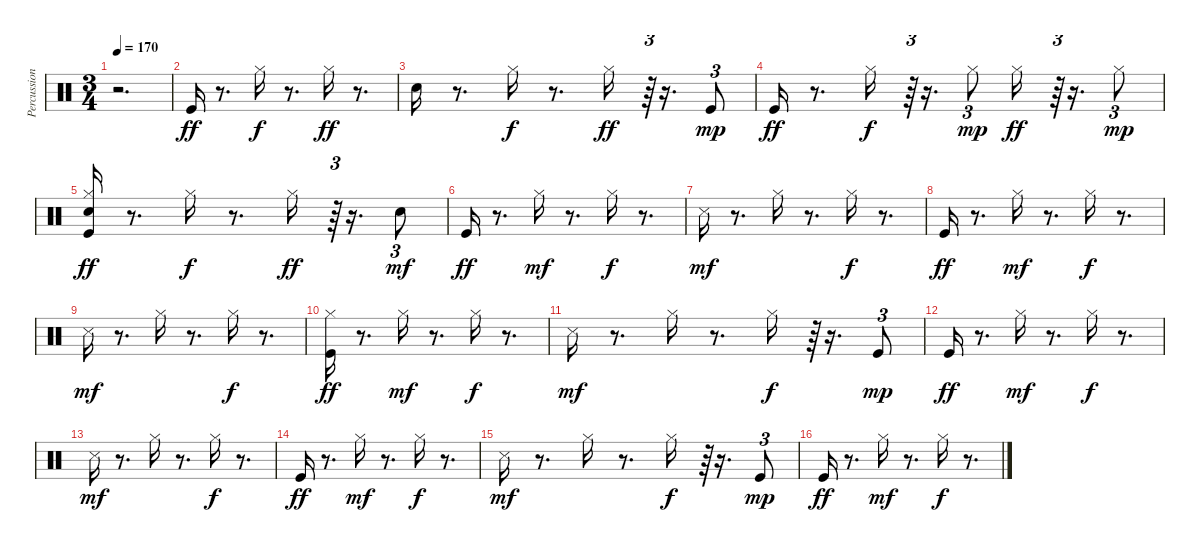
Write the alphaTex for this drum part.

\track ("Percussion" "Percussion") {instrument percussion}
\staff {score}
\articulation defaults
\ts (3 4)
\tempo 170
\clef neutral
\ks c
r.2{d dy ff} |
"Kick (hit)".16{balance 8} r.8{d} "Hi-Hat (closed)".16{dy f} r.8{d} "Hi-Hat (closed)".16{dy ff} r.8{d} |
"Snare (hit) 2".16 r.8{d} "Hi-Hat (closed)".16{dy f} r.8{d} "Hi-Hat (closed)".16{dy ff} r.64{tu (3 2)} r.16{d} "Kick (hit)".8{tu (3 2) dy mp} |
"Kick (hit)".16{dy ff} r.8{d} "Hi-Hat (closed)".16{dy f} r.64{tu (3 2)} r.16{d} "Hi-Hat (closed)".8{tu (3 2) dy mp} "Hi-Hat (closed)".16{dy ff} r.64{tu (3 2)} r.16{d} "Hi-Hat (closed)".8{tu (3 2) dy mp} |
("Kick (hit)" "Snare (hit) 2" "Hi-Hat (closed)").16{dy ff} r.8{d} "Hi-Hat (closed)".16{dy f} r.8{d} "Hi-Hat (closed)".16{dy ff} r.64{tu (3 2)} r.16{d} "Snare (hit) 2".8{tu (3 2) dy mf} |
"Kick (hit)".16{dy ff} r.8{d} "Hi-Hat (closed)".16{dy mf} r.8{d} "Hi-Hat (closed)".16{dy f} r.8{d} |
"Snare (side stick) 3".16{dy mf} r.8{d} "Hi-Hat (closed)".16 r.8{d} "Hi-Hat (closed)".16{dy f} r.8{d} |
"Kick (hit)".16{dy ff} r.8{d} "Hi-Hat (closed)".16{dy mf} r.8{d} "Hi-Hat (closed)".16{dy f} r.8{d} |
"Snare (side stick) 3".16{dy mf} r.8{d} "Hi-Hat (closed)".16 r.8{d} "Hi-Hat (closed)".16{dy f} r.8{d} |
("Kick (hit)" "Hi-Hat (closed)").16{dy ff} r.8{d} "Hi-Hat (closed)".16{dy mf} r.8{d} "Hi-Hat (closed)".16{dy f} r.8{d} |
"Snare (side stick) 3".16{dy mf} r.8{d} "Hi-Hat (closed)".16 r.8{d} "Hi-Hat (closed)".16{dy f} r.64{tu (3 2)} r.16{d} "Kick (hit)".8{tu (3 2) dy mp} |
"Kick (hit)".16{dy ff} r.8{d} "Hi-Hat (closed)".16{dy mf} r.8{d} "Hi-Hat (closed)".16{dy f} r.8{d} |
"Snare (side stick) 3".16{dy mf} r.8{d} "Hi-Hat (closed)".16 r.8{d} "Hi-Hat (closed)".16{dy f} r.8{d} |
"Kick (hit)".16{dy ff} r.8{d} "Hi-Hat (closed)".16{dy mf} r.8{d} "Hi-Hat (closed)".16{dy f} r.8{d} |
"Snare (side stick) 3".16{dy mf} r.8{d} "Hi-Hat (closed)".16 r.8{d} "Hi-Hat (closed)".16{dy f} r.64{tu (3 2)} r.16{d} "Kick (hit)".8{tu (3 2) dy mp} |
"Kick (hit)".16{dy ff} r.8{d} "Hi-Hat (closed)".16{dy mf} r.8{d} "Hi-Hat (closed)".16{dy f} r.8{d}
